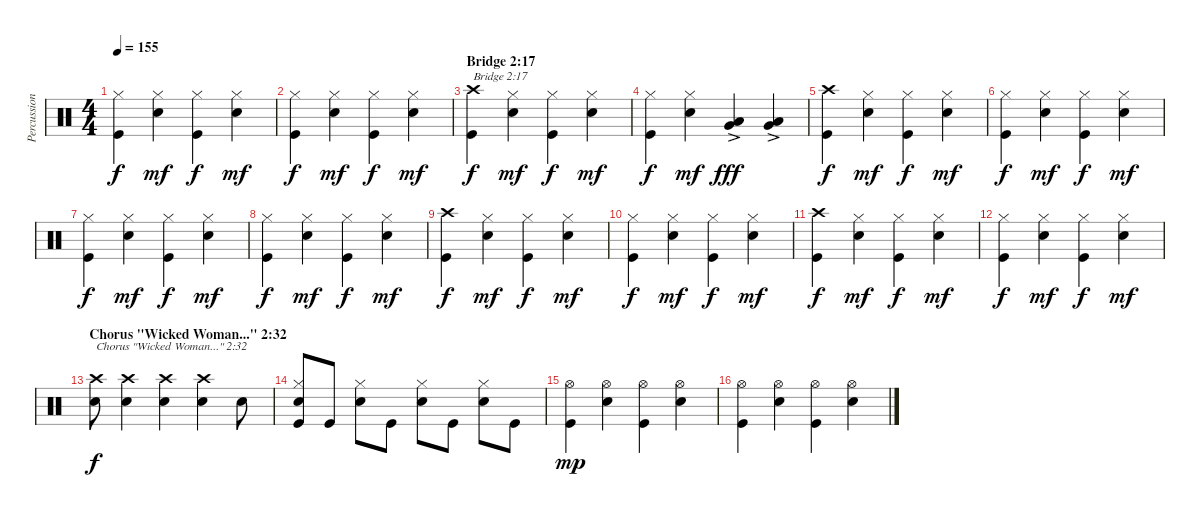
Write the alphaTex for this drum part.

\track ("Percussion" "Percussion") {instrument percussion}
\staff {score}
\articulation defaults
\ts (4 4)
\tempo 155
\clef neutral
\ks c
("Kick (hit)" "Hi-Hat (closed)").4{dy f} ("Electric Snare (hit)" "Hi-Hat (closed)").4{dy mf} ("Kick (hit)" "Hi-Hat (closed)").4{dy f} ("Electric Snare (hit)" "Hi-Hat (closed)").4{dy mf} |
("Kick (hit)" "Hi-Hat (closed)").4{dy f} ("Electric Snare (hit)" "Hi-Hat (closed)").4{dy mf} ("Kick (hit)" "Hi-Hat (closed)").4{dy f} ("Electric Snare (hit)" "Hi-Hat (closed)").4{dy mf} |
\section ("" "Bridge 2:17 ")
("Kick (hit)" "Crash high (hit)").4{txt "Bridge 2:17 " dy f} ("Electric Snare (hit)" "Hi-Hat (closed)").4{dy mf} ("Kick (hit)" "Hi-Hat (closed)").4{dy f} ("Electric Snare (hit)" "Hi-Hat (closed)").4{dy mf} |
("Kick (hit)" "Hi-Hat (closed)").4{dy f} ("Electric Snare (hit)" "Hi-Hat (closed)").4{dy mf} ("Very Low Tom (hit)"{ac} "Low Tom (hit)"{ac}).4{dy fff} ("Very Low Tom (hit)"{ac} "Low Tom (hit)"{ac}).4 |
("Kick (hit)" "Crash high (hit)").4{dy f} ("Electric Snare (hit)" "Hi-Hat (closed)").4{dy mf} ("Kick (hit)" "Hi-Hat (closed)").4{dy f} ("Electric Snare (hit)" "Hi-Hat (closed)").4{dy mf} |
("Kick (hit)" "Hi-Hat (closed)").4{dy f} ("Electric Snare (hit)" "Hi-Hat (closed)").4{dy mf} ("Kick (hit)" "Hi-Hat (closed)").4{dy f} ("Electric Snare (hit)" "Hi-Hat (closed)").4{dy mf} |
("Kick (hit)" "Hi-Hat (closed)").4{dy f} ("Electric Snare (hit)" "Hi-Hat (closed)").4{dy mf} ("Kick (hit)" "Hi-Hat (closed)").4{dy f} ("Electric Snare (hit)" "Hi-Hat (closed)").4{dy mf} |
("Kick (hit)" "Hi-Hat (closed)").4{dy f} ("Electric Snare (hit)" "Hi-Hat (closed)").4{dy mf} ("Kick (hit)" "Hi-Hat (closed)").4{dy f} ("Electric Snare (hit)" "Hi-Hat (closed)").4{dy mf} |
("Kick (hit)" "Crash high (hit)").4{dy f} ("Electric Snare (hit)" "Hi-Hat (closed)").4{dy mf} ("Kick (hit)" "Hi-Hat (closed)").4{dy f} ("Electric Snare (hit)" "Hi-Hat (closed)").4{dy mf} |
("Kick (hit)" "Hi-Hat (closed)").4{dy f} ("Electric Snare (hit)" "Hi-Hat (closed)").4{dy mf} ("Kick (hit)" "Hi-Hat (closed)").4{dy f} ("Electric Snare (hit)" "Hi-Hat (closed)").4{dy mf} |
("Kick (hit)" "Crash high (hit)").4{dy f} ("Electric Snare (hit)" "Hi-Hat (closed)").4{dy mf} ("Kick (hit)" "Hi-Hat (closed)").4{dy f} ("Electric Snare (hit)" "Hi-Hat (closed)").4{dy mf} |
("Kick (hit)" "Hi-Hat (closed)").4{dy f} ("Electric Snare (hit)" "Hi-Hat (closed)").4{dy mf} ("Kick (hit)" "Hi-Hat (closed)").4{dy f} ("Electric Snare (hit)" "Hi-Hat (closed)").4{dy mf} |
\section ("" "Chorus \"Wicked Woman...\" 2:32")
("Electric Snare (hit)" "Crash high (hit)").8{txt "Chorus \"Wicked Woman...\" 2:32" dy f} ("Electric Snare (hit)" "Crash high (hit)").4 ("Electric Snare (hit)" "Crash high (hit)").4 ("Electric Snare (hit)" "Crash high (hit)").4 "Electric Snare (hit)".8 |
("Kick (hit)" "Electric Snare (hit)" "Hi-Hat (closed)").8 "Kick (hit)".8 ("Electric Snare (hit)" "Hi-Hat (closed)").8 "Kick (hit)".8 ("Electric Snare (hit)" "Hi-Hat (closed)").8 "Kick (hit)".8 ("Electric Snare (hit)" "Hi-Hat (closed)").8 "Kick (hit)".8 |
("Kick (hit)" "Hi-Hat (open)").4{dy mp} ("Electric Snare (hit)" "Hi-Hat (open)").4 ("Kick (hit)" "Hi-Hat (open)").4 ("Electric Snare (hit)" "Hi-Hat (open)").4 |
("Kick (hit)" "Hi-Hat (open)").4 ("Electric Snare (hit)" "Hi-Hat (open)").4 ("Kick (hit)" "Hi-Hat (open)").4 ("Electric Snare (hit)" "Hi-Hat (open)").4
